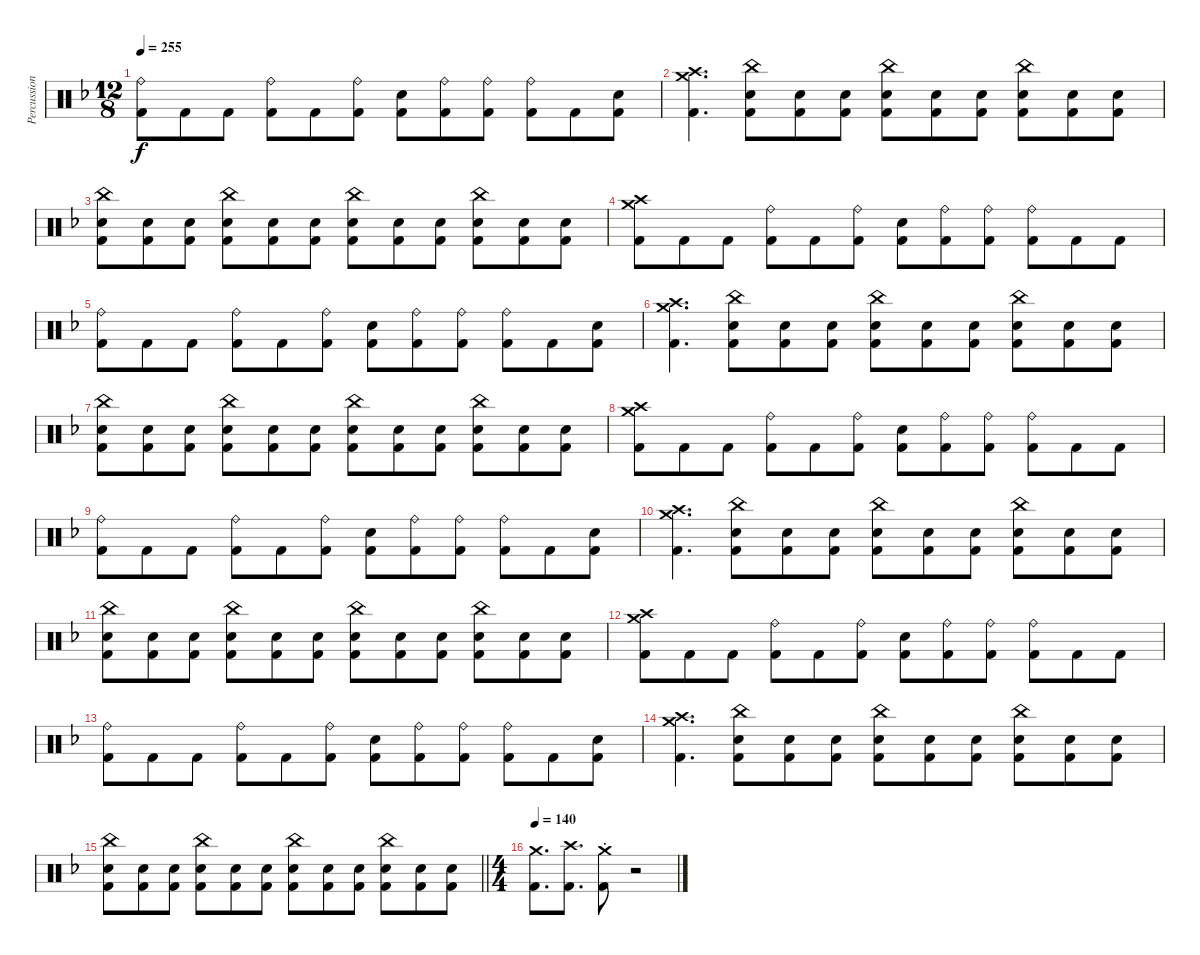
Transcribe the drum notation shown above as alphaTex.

\track ("Percussion" "Percussion") {instrument percussion}
\staff {score}
\articulation defaults
\ts (12 8)
\tempo 255
\clef neutral
\ks dminor
("Ride (bell)" "Kick (hit) 2").8{dy f} "Kick (hit) 2".8 "Kick (hit) 2".8 ("Ride (bell)" "Kick (hit) 2").8 "Kick (hit) 2".8 ("Ride (bell)" "Kick (hit) 2").8 ("Electric Snare (hit)" "Kick (hit) 2").8 ("Ride (bell)" "Kick (hit) 2").8 ("Ride (bell)" "Kick (hit) 2").8 ("Ride (bell)" "Kick (hit) 2").8 "Kick (hit) 2".8 ("Electric Snare (hit)" "Kick (hit) 2").8 |
("Crash medium (hit)" "Crash high (hit)" "Kick (hit) 2").4{d} ("China (hit)" "Electric Snare (hit)" "Kick (hit) 2").8 ("Electric Snare (hit)" "Kick (hit) 2").8 ("Electric Snare (hit)" "Kick (hit) 2").8 ("China (hit)" "Electric Snare (hit)" "Kick (hit) 2").8 ("Electric Snare (hit)" "Kick (hit) 2").8 ("Electric Snare (hit)" "Kick (hit) 2").8 ("China (hit)" "Electric Snare (hit)" "Kick (hit) 2").8 ("Electric Snare (hit)" "Kick (hit) 2").8 ("Electric Snare (hit)" "Kick (hit) 2").8 |
("China (hit)" "Electric Snare (hit)" "Kick (hit) 2").8 ("Electric Snare (hit)" "Kick (hit) 2").8 ("Electric Snare (hit)" "Kick (hit) 2").8 ("China (hit)" "Electric Snare (hit)" "Kick (hit) 2").8 ("Electric Snare (hit)" "Kick (hit) 2").8 ("Electric Snare (hit)" "Kick (hit) 2").8 ("China (hit)" "Electric Snare (hit)" "Kick (hit) 2").8 ("Electric Snare (hit)" "Kick (hit) 2").8 ("Electric Snare (hit)" "Kick (hit) 2").8 ("China (hit)" "Electric Snare (hit)" "Kick (hit) 2").8 ("Electric Snare (hit)" "Kick (hit) 2").8 ("Electric Snare (hit)" "Kick (hit) 2").8 |
("Crash medium (hit)" "Crash high (hit)" "Kick (hit) 2").8 "Kick (hit) 2".8 "Kick (hit) 2".8 ("Ride (bell)" "Kick (hit) 2").8 "Kick (hit) 2".8 ("Ride (bell)" "Kick (hit) 2").8 ("Electric Snare (hit)" "Kick (hit) 2").8 ("Ride (bell)" "Kick (hit) 2").8 ("Ride (bell)" "Kick (hit) 2").8 ("Ride (bell)" "Kick (hit) 2").8 "Kick (hit) 2".8 "Kick (hit) 2".8 |
("Ride (bell)" "Kick (hit) 2").8 "Kick (hit) 2".8 "Kick (hit) 2".8 ("Ride (bell)" "Kick (hit) 2").8 "Kick (hit) 2".8 ("Ride (bell)" "Kick (hit) 2").8 ("Electric Snare (hit)" "Kick (hit) 2").8 ("Ride (bell)" "Kick (hit) 2").8 ("Ride (bell)" "Kick (hit) 2").8 ("Ride (bell)" "Kick (hit) 2").8 "Kick (hit) 2".8 ("Electric Snare (hit)" "Kick (hit) 2").8 |
("Crash medium (hit)" "Crash high (hit)" "Kick (hit) 2").4{d} ("China (hit)" "Electric Snare (hit)" "Kick (hit) 2").8 ("Electric Snare (hit)" "Kick (hit) 2").8 ("Electric Snare (hit)" "Kick (hit) 2").8 ("China (hit)" "Electric Snare (hit)" "Kick (hit) 2").8 ("Electric Snare (hit)" "Kick (hit) 2").8 ("Electric Snare (hit)" "Kick (hit) 2").8 ("China (hit)" "Electric Snare (hit)" "Kick (hit) 2").8 ("Electric Snare (hit)" "Kick (hit) 2").8 ("Electric Snare (hit)" "Kick (hit) 2").8 |
("China (hit)" "Electric Snare (hit)" "Kick (hit) 2").8 ("Electric Snare (hit)" "Kick (hit) 2").8 ("Electric Snare (hit)" "Kick (hit) 2").8 ("China (hit)" "Electric Snare (hit)" "Kick (hit) 2").8 ("Electric Snare (hit)" "Kick (hit) 2").8 ("Electric Snare (hit)" "Kick (hit) 2").8 ("China (hit)" "Electric Snare (hit)" "Kick (hit) 2").8 ("Electric Snare (hit)" "Kick (hit) 2").8 ("Electric Snare (hit)" "Kick (hit) 2").8 ("China (hit)" "Electric Snare (hit)" "Kick (hit) 2").8 ("Electric Snare (hit)" "Kick (hit) 2").8 ("Electric Snare (hit)" "Kick (hit) 2").8 |
("Crash medium (hit)" "Crash high (hit)" "Kick (hit) 2").8 "Kick (hit) 2".8 "Kick (hit) 2".8 ("Ride (bell)" "Kick (hit) 2").8 "Kick (hit) 2".8 ("Ride (bell)" "Kick (hit) 2").8 ("Electric Snare (hit)" "Kick (hit) 2").8 ("Ride (bell)" "Kick (hit) 2").8 ("Ride (bell)" "Kick (hit) 2").8 ("Ride (bell)" "Kick (hit) 2").8 "Kick (hit) 2".8 "Kick (hit) 2".8 |
("Ride (bell)" "Kick (hit) 2").8 "Kick (hit) 2".8 "Kick (hit) 2".8 ("Ride (bell)" "Kick (hit) 2").8 "Kick (hit) 2".8 ("Ride (bell)" "Kick (hit) 2").8 ("Electric Snare (hit)" "Kick (hit) 2").8 ("Ride (bell)" "Kick (hit) 2").8 ("Ride (bell)" "Kick (hit) 2").8 ("Ride (bell)" "Kick (hit) 2").8 "Kick (hit) 2".8 ("Electric Snare (hit)" "Kick (hit) 2").8 |
("Crash medium (hit)" "Crash high (hit)" "Kick (hit) 2").4{d} ("China (hit)" "Electric Snare (hit)" "Kick (hit) 2").8 ("Electric Snare (hit)" "Kick (hit) 2").8 ("Electric Snare (hit)" "Kick (hit) 2").8 ("China (hit)" "Electric Snare (hit)" "Kick (hit) 2").8 ("Electric Snare (hit)" "Kick (hit) 2").8 ("Electric Snare (hit)" "Kick (hit) 2").8 ("China (hit)" "Electric Snare (hit)" "Kick (hit) 2").8 ("Electric Snare (hit)" "Kick (hit) 2").8 ("Electric Snare (hit)" "Kick (hit) 2").8 |
("China (hit)" "Electric Snare (hit)" "Kick (hit) 2").8 ("Electric Snare (hit)" "Kick (hit) 2").8 ("Electric Snare (hit)" "Kick (hit) 2").8 ("China (hit)" "Electric Snare (hit)" "Kick (hit) 2").8 ("Electric Snare (hit)" "Kick (hit) 2").8 ("Electric Snare (hit)" "Kick (hit) 2").8 ("China (hit)" "Electric Snare (hit)" "Kick (hit) 2").8 ("Electric Snare (hit)" "Kick (hit) 2").8 ("Electric Snare (hit)" "Kick (hit) 2").8 ("China (hit)" "Electric Snare (hit)" "Kick (hit) 2").8 ("Electric Snare (hit)" "Kick (hit) 2").8 ("Electric Snare (hit)" "Kick (hit) 2").8 |
("Crash medium (hit)" "Crash high (hit)" "Kick (hit) 2").8 "Kick (hit) 2".8 "Kick (hit) 2".8 ("Ride (bell)" "Kick (hit) 2").8 "Kick (hit) 2".8 ("Ride (bell)" "Kick (hit) 2").8 ("Electric Snare (hit)" "Kick (hit) 2").8 ("Ride (bell)" "Kick (hit) 2").8 ("Ride (bell)" "Kick (hit) 2").8 ("Ride (bell)" "Kick (hit) 2").8 "Kick (hit) 2".8 "Kick (hit) 2".8 |
("Ride (bell)" "Kick (hit) 2").8 "Kick (hit) 2".8 "Kick (hit) 2".8 ("Ride (bell)" "Kick (hit) 2").8 "Kick (hit) 2".8 ("Ride (bell)" "Kick (hit) 2").8 ("Electric Snare (hit)" "Kick (hit) 2").8 ("Ride (bell)" "Kick (hit) 2").8 ("Ride (bell)" "Kick (hit) 2").8 ("Ride (bell)" "Kick (hit) 2").8 "Kick (hit) 2".8 ("Electric Snare (hit)" "Kick (hit) 2").8 |
("Crash medium (hit)" "Crash high (hit)" "Kick (hit) 2").4{d} ("China (hit)" "Electric Snare (hit)" "Kick (hit) 2").8 ("Electric Snare (hit)" "Kick (hit) 2").8 ("Electric Snare (hit)" "Kick (hit) 2").8 ("China (hit)" "Electric Snare (hit)" "Kick (hit) 2").8 ("Electric Snare (hit)" "Kick (hit) 2").8 ("Electric Snare (hit)" "Kick (hit) 2").8 ("China (hit)" "Electric Snare (hit)" "Kick (hit) 2").8 ("Electric Snare (hit)" "Kick (hit) 2").8 ("Electric Snare (hit)" "Kick (hit) 2").8 |
\barLineRight lightlight
("China (hit)" "Electric Snare (hit)" "Kick (hit) 2").8 ("Electric Snare (hit)" "Kick (hit) 2").8 ("Electric Snare (hit)" "Kick (hit) 2").8 ("China (hit)" "Electric Snare (hit)" "Kick (hit) 2").8 ("Electric Snare (hit)" "Kick (hit) 2").8 ("Electric Snare (hit)" "Kick (hit) 2").8 ("China (hit)" "Electric Snare (hit)" "Kick (hit) 2").8 ("Electric Snare (hit)" "Kick (hit) 2").8 ("Electric Snare (hit)" "Kick (hit) 2").8 ("China (hit)" "Electric Snare (hit)" "Kick (hit) 2").8 ("Electric Snare (hit)" "Kick (hit) 2").8 ("Electric Snare (hit)" "Kick (hit) 2").8 |
\ts (4 4)
\section ("" "")
\tempo 140
("Crash medium (hit)" "Kick (hit) 2").8{d} ("Crash high (hit)" "Kick (hit) 2").8{d} ("Crash medium (hit)"{st} "Kick (hit) 2").8 r.2{volume 0}
